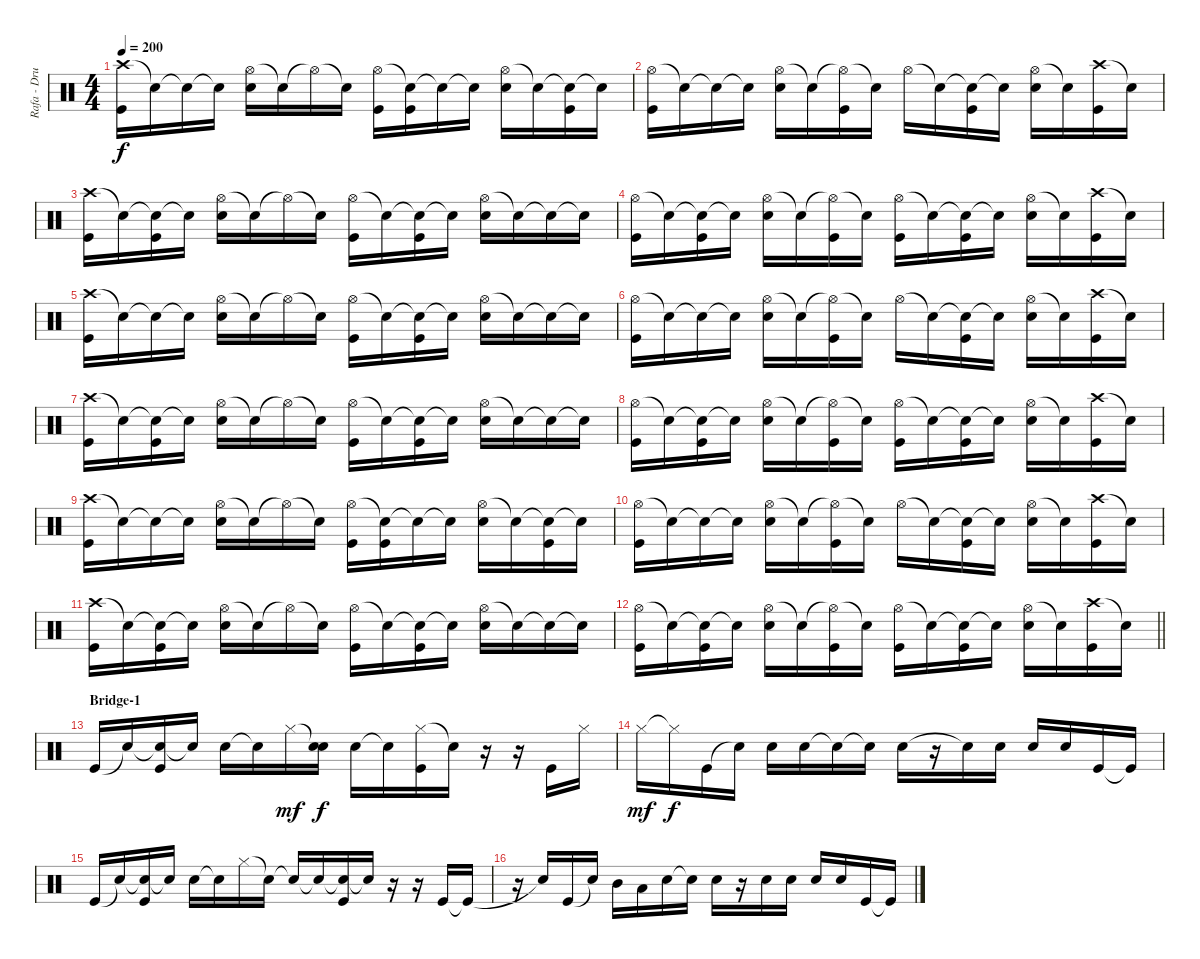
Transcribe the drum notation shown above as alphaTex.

\track ("Rafa - Drums" "Rafa - Dru") {instrument percussion}
\staff {score}
\articulation defaults
\ts (4 4)
\tempo 200
\clef neutral
\ks c
("Crash high (hit)" "Kick (hit)").16{dy f} "Snare (hit)"{t}.16 "Snare (hit)"{t}.16 "Snare (hit)"{t}.16 ("Hi-Hat (open)" "Electric Snare (hit)").16 "Snare (hit)"{t}.16 "Hi-Hat (open)"{t}.16 "Snare (hit)"{t}.16 ("Hi-Hat (open)" "Kick (hit)").16 ("Snare (hit)"{t} "Kick (hit)").16 "Snare (hit)"{t}.16 "Snare (hit)"{t}.16 ("Hi-Hat (open)" "Electric Snare (hit)").16 "Snare (hit)"{t}.16 ("Snare (hit)"{t} "Kick (hit)").16 "Snare (hit)"{t}.16 |
("Hi-Hat (open)" "Kick (hit)").16 "Snare (hit)"{t}.16 "Snare (hit)"{t}.16 "Snare (hit)"{t}.16 ("Hi-Hat (open)" "Electric Snare (hit)").16 "Snare (hit)"{t}.16 ("Hi-Hat (open)"{t} "Kick (hit)").16 "Snare (hit)"{t}.16 "Hi-Hat (open)".16 "Snare (hit)"{t}.16 ("Snare (hit)"{t} "Kick (hit)").16 "Snare (hit)"{t}.16 ("Hi-Hat (open)" "Electric Snare (hit)").16 "Snare (hit)"{t}.16 ("Crash high (hit)" "Kick (hit)").16 "Snare (hit)"{t}.16 |
("Crash high (hit)" "Kick (hit)").16 "Snare (hit)"{t}.16 ("Snare (hit)"{t} "Kick (hit)").16 "Snare (hit)"{t}.16 ("Hi-Hat (open)" "Electric Snare (hit)").16 "Snare (hit)"{t}.16 "Hi-Hat (open)"{t}.16 "Snare (hit)"{t}.16 ("Hi-Hat (open)" "Kick (hit)").16 "Snare (hit)"{t}.16 ("Snare (hit)"{t} "Kick (hit)").16 "Snare (hit)"{t}.16 ("Hi-Hat (open)" "Electric Snare (hit)").16 "Snare (hit)"{t}.16 "Snare (hit)"{t}.16 "Snare (hit)"{t}.16 |
("Hi-Hat (open)" "Kick (hit)").16 "Snare (hit)"{t}.16 ("Snare (hit)"{t} "Kick (hit)").16 "Snare (hit)"{t}.16 ("Hi-Hat (open)" "Electric Snare (hit)").16 "Snare (hit)"{t}.16 ("Hi-Hat (open)"{t} "Kick (hit)").16 "Snare (hit)"{t}.16 ("Hi-Hat (open)" "Kick (hit)").16 "Snare (hit)"{t}.16 ("Snare (hit)"{t} "Kick (hit)").16 "Snare (hit)"{t}.16 ("Hi-Hat (open)" "Electric Snare (hit)").16 "Snare (hit)"{t}.16 ("Crash high (hit)" "Kick (hit)").16 "Snare (hit)"{t}.16 |
("Crash high (hit)" "Kick (hit)").16 "Snare (hit)"{t}.16 "Snare (hit)"{t}.16 "Snare (hit)"{t}.16 ("Hi-Hat (open)" "Electric Snare (hit)").16 "Snare (hit)"{t}.16 "Hi-Hat (open)"{t}.16 "Snare (hit)"{t}.16 ("Hi-Hat (open)" "Kick (hit)").16 "Snare (hit)"{t}.16 ("Snare (hit)"{t} "Kick (hit)").16 "Snare (hit)"{t}.16 ("Hi-Hat (open)" "Electric Snare (hit)").16 "Snare (hit)"{t}.16 "Snare (hit)"{t}.16 "Snare (hit)"{t}.16 |
("Hi-Hat (open)" "Kick (hit)").16 "Snare (hit)"{t}.16 "Snare (hit)"{t}.16 "Snare (hit)"{t}.16 ("Hi-Hat (open)" "Electric Snare (hit)").16 "Snare (hit)"{t}.16 ("Hi-Hat (open)"{t} "Kick (hit)").16 "Snare (hit)"{t}.16 "Hi-Hat (open)".16 "Snare (hit)"{t}.16 ("Snare (hit)"{t} "Kick (hit)").16 "Snare (hit)"{t}.16 ("Hi-Hat (open)" "Electric Snare (hit)").16 "Snare (hit)"{t}.16 ("Crash high (hit)" "Kick (hit)").16 "Snare (hit)"{t}.16 |
("Crash high (hit)" "Kick (hit)").16 "Snare (hit)"{t}.16 ("Snare (hit)"{t} "Kick (hit)").16 "Snare (hit)"{t}.16 ("Hi-Hat (open)" "Electric Snare (hit)").16 "Snare (hit)"{t}.16 "Hi-Hat (open)"{t}.16 "Snare (hit)"{t}.16 ("Hi-Hat (open)" "Kick (hit)").16 "Snare (hit)"{t}.16 ("Snare (hit)"{t} "Kick (hit)").16 "Snare (hit)"{t}.16 ("Hi-Hat (open)" "Electric Snare (hit)").16 "Snare (hit)"{t}.16 "Snare (hit)"{t}.16 "Snare (hit)"{t}.16 |
("Hi-Hat (open)" "Kick (hit)").16 "Snare (hit)"{t}.16 ("Snare (hit)"{t} "Kick (hit)").16 "Snare (hit)"{t}.16 ("Hi-Hat (open)" "Electric Snare (hit)").16 "Snare (hit)"{t}.16 ("Hi-Hat (open)"{t} "Kick (hit)").16 "Snare (hit)"{t}.16 ("Hi-Hat (open)" "Kick (hit)").16 "Snare (hit)"{t}.16 ("Snare (hit)"{t} "Kick (hit)").16 "Snare (hit)"{t}.16 ("Hi-Hat (open)" "Electric Snare (hit)").16 "Snare (hit)"{t}.16 ("Crash high (hit)" "Kick (hit)").16 "Snare (hit)"{t}.16 |
("Crash high (hit)" "Kick (hit)").16 "Snare (hit)"{t}.16 "Snare (hit)"{t}.16 "Snare (hit)"{t}.16 ("Hi-Hat (open)" "Electric Snare (hit)").16 "Snare (hit)"{t}.16 "Hi-Hat (open)"{t}.16 "Snare (hit)"{t}.16 ("Hi-Hat (open)" "Kick (hit)").16 ("Snare (hit)"{t} "Kick (hit)").16 "Snare (hit)"{t}.16 "Snare (hit)"{t}.16 ("Hi-Hat (open)" "Electric Snare (hit)").16 "Snare (hit)"{t}.16 ("Snare (hit)"{t} "Kick (hit)").16 "Snare (hit)"{t}.16 |
("Hi-Hat (open)" "Kick (hit)").16 "Snare (hit)"{t}.16 "Snare (hit)"{t}.16 "Snare (hit)"{t}.16 ("Hi-Hat (open)" "Electric Snare (hit)").16 "Snare (hit)"{t}.16 ("Hi-Hat (open)"{t} "Kick (hit)").16 "Snare (hit)"{t}.16 "Hi-Hat (open)".16 "Snare (hit)"{t}.16 ("Snare (hit)"{t} "Kick (hit)").16 "Snare (hit)"{t}.16 ("Hi-Hat (open)" "Electric Snare (hit)").16 "Snare (hit)"{t}.16 ("Crash high (hit)" "Kick (hit)").16 "Snare (hit)"{t}.16 |
("Crash high (hit)" "Kick (hit)").16 "Snare (hit)"{t}.16 ("Snare (hit)"{t} "Kick (hit)").16 "Snare (hit)"{t}.16 ("Hi-Hat (open)" "Electric Snare (hit)").16 "Snare (hit)"{t}.16 "Hi-Hat (open)"{t}.16 "Snare (hit)"{t}.16 ("Hi-Hat (open)" "Kick (hit)").16 "Snare (hit)"{t}.16 ("Snare (hit)"{t} "Kick (hit)").16 "Snare (hit)"{t}.16 ("Hi-Hat (open)" "Electric Snare (hit)").16 "Snare (hit)"{t}.16 "Snare (hit)"{t}.16 "Snare (hit)"{t}.16 |
\barLineRight lightlight
("Hi-Hat (open)" "Kick (hit)").16 "Snare (hit)"{t}.16 ("Snare (hit)"{t} "Kick (hit)").16 "Snare (hit)"{t}.16 ("Hi-Hat (open)" "Electric Snare (hit)").16 "Snare (hit)"{t}.16 ("Hi-Hat (open)"{t} "Kick (hit)").16 "Snare (hit)"{t}.16 ("Hi-Hat (open)" "Kick (hit)").16 "Snare (hit)"{t}.16 ("Snare (hit)"{t} "Kick (hit)").16 "Snare (hit)"{t}.16 ("Hi-Hat (open)" "Electric Snare (hit)").16 "Snare (hit)"{t}.16 ("Crash high (hit)" "Kick (hit)").16 "Snare (hit)"{t}.16 |
\section ("" "Bridge-1")
"Kick (hit)".16 "Snare (hit)"{t}.16 ("Snare (hit)"{t} "Kick (hit)").16 "Snare (hit)"{t}.16 "Electric Snare (hit)".16 "Snare (hit)"{t}.16 "Hi-Hat (closed)".16{dy mf} ("Snare (hit)"{t} "Electric Snare (hit)").16{dy f} "Electric Snare (hit)".16 "Snare (hit)"{t}.16 ("Hi-Hat (closed)" "Kick (hit)").16 "Snare (hit)"{t}.16 r.16 r.16 "Kick (hit)".16 "Hi-Hat (closed)".16 |
"Hi-Hat (closed)".16{dy mf} "Hi-Hat (closed)"{t}.16{dy f} "Kick (hit)".16 "Snare (hit)"{t}.16 "Electric Snare (hit)".16 "Electric Snare (hit)".16 "Electric Snare (hit)"{t}.16 "Snare (hit)"{t}.16 "Electric Snare (hit)".16 r.16 "Electric Snare (hit)"{t}.16 "Electric Snare (hit)".16 "Electric Snare (hit)".16 "Electric Snare (hit)".16 "Kick (hit)".16 "Kick (hit)"{t}.16 |
"Kick (hit)".16 "Snare (hit)"{t}.16 ("Snare (hit)"{t} "Kick (hit)").16 "Snare (hit)"{t}.16 "Electric Snare (hit)".16 "Snare (hit)"{t}.16 "Hi-Hat (closed)".16 "Snare (hit)"{t}.16 "Snare (hit)"{t}.16 "Snare (hit)"{t}.16 ("Snare (hit)"{t} "Kick (hit)").16 "Snare (hit)"{t}.16 r.16 r.16 "Kick (hit)".16 "Kick (hit)"{t}.16 |
r.16 "Snare (hit)"{t}.16 "Kick (hit)".16 "Snare (hit)"{t}.16 "Mid Tom (hit)".16 "Low Tom (hit)".16 "Electric Snare (hit)".16 "Snare (hit)"{t}.16 "Electric Snare (hit)".16 r.16 "Electric Snare (hit)".16 "Electric Snare (hit)".16 "Electric Snare (hit)".16 "Electric Snare (hit)".16 "Kick (hit)".16 "Kick (hit)"{t}.16
